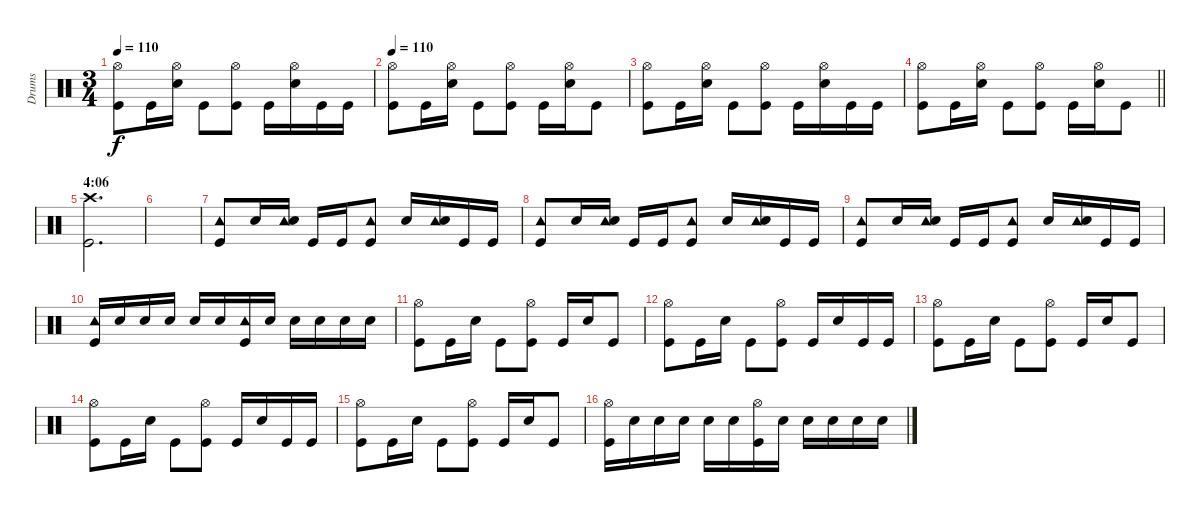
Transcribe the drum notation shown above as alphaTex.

\track ("Drums" "Drums") {instrument percussion}
\staff {score}
\articulation defaults
\ts (3 4)
\tempo 110
\clef neutral
\ks c
("Hi-Hat (open)" "Kick (hit)").8{dy f} "Kick (hit)".16 ("Electric Snare (hit)" "Hi-Hat (open)").16 "Kick (hit)".8 ("Hi-Hat (open)" "Kick (hit)").8 "Kick (hit)".16 ("Electric Snare (hit)" "Hi-Hat (open)").16 "Kick (hit)".16 "Kick (hit)".16 |
\tempo 110
("Hi-Hat (open)" "Kick (hit)").8 "Kick (hit)".16 ("Electric Snare (hit)" "Hi-Hat (open)").16 "Kick (hit)".8 ("Hi-Hat (open)" "Kick (hit)").8 "Kick (hit)".16 ("Electric Snare (hit)" "Hi-Hat (open)").16 "Kick (hit)".8 |
("Hi-Hat (open)" "Kick (hit)").8 "Kick (hit)".16 ("Electric Snare (hit)" "Hi-Hat (open)").16 "Kick (hit)".8 ("Hi-Hat (open)" "Kick (hit)").8 "Kick (hit)".16 ("Electric Snare (hit)" "Hi-Hat (open)").16 "Kick (hit)".16 "Kick (hit)".16 |
\barLineRight lightlight
("Hi-Hat (open)" "Kick (hit)").8 "Kick (hit)".16 ("Electric Snare (hit)" "Hi-Hat (open)").16 "Kick (hit)".8 ("Hi-Hat (open)" "Kick (hit)").8 "Kick (hit)".16 ("Electric Snare (hit)" "Hi-Hat (open)").16 "Kick (hit)".8 |
\section ("" "4:06")
("Crash high (hit)" "Kick (hit)").2{d} |
|
("Tambourine (hit)" "Kick (hit)").8 "Electric Snare (hit)".16 ("Tambourine (hit)" "Electric Snare (hit)").16 "Kick (hit)".16 "Kick (hit)".16 ("Tambourine (hit)" "Kick (hit)").8 "Electric Snare (hit)".16 ("Tambourine (hit)" "Electric Snare (hit)").16 "Kick (hit)".16 "Kick (hit)".16 |
("Tambourine (hit)" "Kick (hit)").8 "Electric Snare (hit)".16 ("Tambourine (hit)" "Electric Snare (hit)").16 "Kick (hit)".16 "Kick (hit)".16 ("Tambourine (hit)" "Kick (hit)").8 "Electric Snare (hit)".16 ("Tambourine (hit)" "Electric Snare (hit)").16 "Kick (hit)".16 "Kick (hit)".16 |
("Tambourine (hit)" "Kick (hit)").8 "Electric Snare (hit)".16 ("Tambourine (hit)" "Electric Snare (hit)").16 "Kick (hit)".16 "Kick (hit)".16 ("Tambourine (hit)" "Kick (hit)").8 "Electric Snare (hit)".16 ("Tambourine (hit)" "Electric Snare (hit)").16 "Kick (hit)".16 "Kick (hit)".16 |
("Tambourine (hit)" "Kick (hit)").16 "Electric Snare (hit)".16 "Electric Snare (hit)".16 "Electric Snare (hit)".16 "Electric Snare (hit)".16 "Electric Snare (hit)".16 ("Tambourine (hit)" "Kick (hit)").16 "Electric Snare (hit)".16 "Electric Snare (hit)".16 "Electric Snare (hit)".16 "Electric Snare (hit)".16 "Electric Snare (hit)".16 |
("Hi-Hat (open)" "Kick (hit)").8 "Kick (hit)".16 "Electric Snare (hit)".16 "Kick (hit)".8 ("Hi-Hat (open)" "Kick (hit)").8 "Kick (hit)".16 "Electric Snare (hit)".16 "Kick (hit)".8 |
("Hi-Hat (open)" "Kick (hit)").8 "Kick (hit)".16 "Electric Snare (hit)".16 "Kick (hit)".8 ("Hi-Hat (open)" "Kick (hit)").8 "Kick (hit)".16 "Electric Snare (hit)".16 "Kick (hit)".16 "Kick (hit)".16 |
("Hi-Hat (open)" "Kick (hit)").8 "Kick (hit)".16 "Electric Snare (hit)".16 "Kick (hit)".8 ("Hi-Hat (open)" "Kick (hit)").8 "Kick (hit)".16 "Electric Snare (hit)".16 "Kick (hit)".8 |
("Hi-Hat (open)" "Kick (hit)").8 "Kick (hit)".16 "Electric Snare (hit)".16 "Kick (hit)".8 ("Hi-Hat (open)" "Kick (hit)").8 "Kick (hit)".16 "Electric Snare (hit)".16 "Kick (hit)".16 "Kick (hit)".16 |
("Hi-Hat (open)" "Kick (hit)").8 "Kick (hit)".16 "Electric Snare (hit)".16 "Kick (hit)".8 ("Hi-Hat (open)" "Kick (hit)").8 "Kick (hit)".16 "Electric Snare (hit)".16 "Kick (hit)".8 |
("Hi-Hat (open)" "Kick (hit)").16 "Electric Snare (hit)".16 "Electric Snare (hit)".16 "Electric Snare (hit)".16 "Electric Snare (hit)".16 "Electric Snare (hit)".16 ("Hi-Hat (open)" "Kick (hit)").16 "Electric Snare (hit)".16 "Electric Snare (hit)".16 "Electric Snare (hit)".16 "Electric Snare (hit)".16 "Electric Snare (hit)".16
